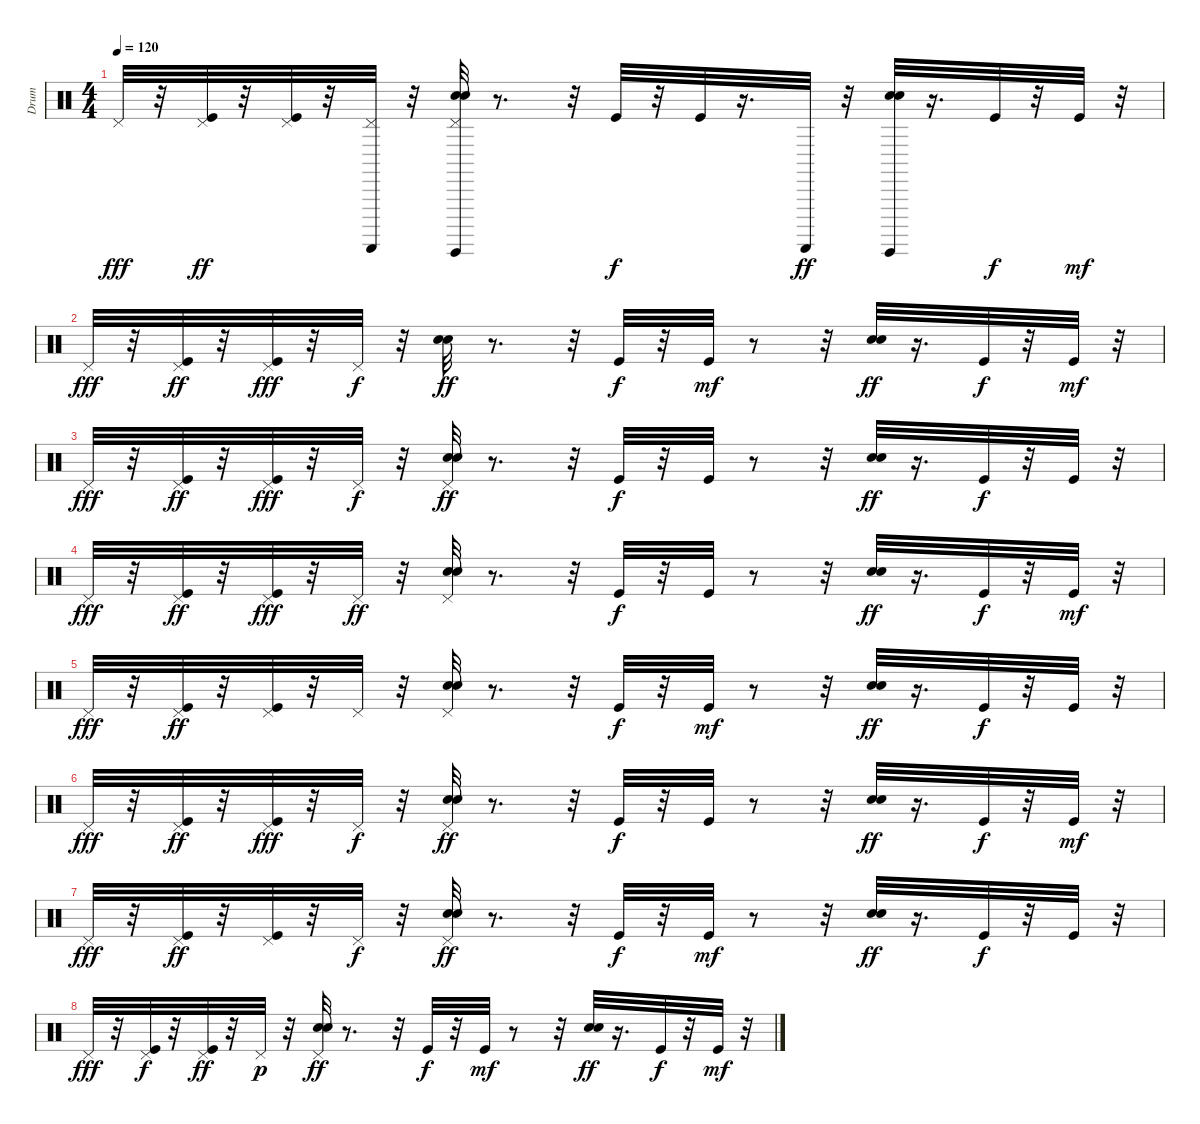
\track ("Drum" "Drum") {instrument percussion}
\staff {score}
\articulation defaults
\ts (4 4)
\tempo 120
\clef neutral
\ks c "Pedal Hi-Hat (hit)".32{dy fff}
r.32 ("Kick (hit)" "Pedal Hi-Hat (hit)").32{dy ff} r.32 ("Kick (hit)" "Pedal Hi-Hat (hit)").32 r.32 ("Guiro (scrap-return)" "Pedal Hi-Hat (hit)").32 r.32 ("Guiro (hit)" "Snare (hit) 2" "Electric Snare (hit)" "Pedal Hi-Hat (hit)").32 r.8{d} r.32 "Kick (hit)".32{dy f} r.32 "Kick (hit)".32 r.16{d} "Guiro (scrap-return)".32{dy ff} r.32 ("Guiro (hit)" "Snare (hit) 2" "Electric Snare (hit)").32 r.16{d} "Kick (hit)".32{dy f} r.32 "Kick (hit)".32{dy mf} r.32 |
"Pedal Hi-Hat (hit)".32{dy fff} r.32 ("Kick (hit)" "Pedal Hi-Hat (hit)").32{dy ff} r.32 ("Kick (hit)" "Pedal Hi-Hat (hit)").32{dy fff} r.32 "Pedal Hi-Hat (hit)".32{dy f} r.32 ("Snare (hit) 2" "Electric Snare (hit)").32{dy ff} r.8{d} r.32 "Kick (hit)".32{dy f} r.32 "Kick (hit)".32{dy mf} r.8 r.32 ("Snare (hit) 2" "Electric Snare (hit)").32{dy ff} r.16{d} "Kick (hit)".32{dy f} r.32 "Kick (hit)".32{dy mf} r.32 |
"Pedal Hi-Hat (hit)".32{dy fff} r.32 ("Kick (hit)" "Pedal Hi-Hat (hit)").32{dy ff} r.32 ("Kick (hit)" "Pedal Hi-Hat (hit)").32{dy fff} r.32 "Pedal Hi-Hat (hit)".32{dy f} r.32 ("Snare (hit) 2" "Electric Snare (hit)" "Pedal Hi-Hat (hit)").32{dy ff} r.8{d} r.32 "Kick (hit)".32{dy f} r.32 "Kick (hit)".32 r.8 r.32 ("Electric Snare (hit)" "Snare (hit) 2").32{dy ff} r.16{d} "Kick (hit)".32{dy f} r.32 "Kick (hit)".32 r.32 |
"Pedal Hi-Hat (hit)".32{dy fff} r.32 ("Kick (hit)" "Pedal Hi-Hat (hit)").32{dy ff} r.32 ("Kick (hit)" "Pedal Hi-Hat (hit)").32{dy fff} r.32 "Pedal Hi-Hat (hit)".32{dy ff} r.32 ("Snare (hit) 2" "Electric Snare (hit)" "Pedal Hi-Hat (hit)").32 r.8{d} r.32 "Kick (hit)".32{dy f} r.32 "Kick (hit)".32 r.8 r.32 ("Snare (hit) 2" "Electric Snare (hit)").32{dy ff} r.16{d} "Kick (hit)".32{dy f} r.32 "Kick (hit)".32{dy mf} r.32 |
"Pedal Hi-Hat (hit)".32{dy fff} r.32 ("Kick (hit)" "Pedal Hi-Hat (hit)").32{dy ff} r.32 ("Kick (hit)" "Pedal Hi-Hat (hit)").32 r.32 "Pedal Hi-Hat (hit)".32 r.32 ("Snare (hit) 2" "Electric Snare (hit)" "Pedal Hi-Hat (hit)").32 r.8{d} r.32 "Kick (hit)".32{dy f} r.32 "Kick (hit)".32{dy mf} r.8 r.32 ("Snare (hit) 2" "Electric Snare (hit)").32{dy ff} r.16{d} "Kick (hit)".32{dy f} r.32 "Kick (hit)".32 r.32 |
"Pedal Hi-Hat (hit)".32{dy fff} r.32 ("Kick (hit)" "Pedal Hi-Hat (hit)").32{dy ff} r.32 ("Kick (hit)" "Pedal Hi-Hat (hit)").32{dy fff} r.32 "Pedal Hi-Hat (hit)".32{dy f} r.32 ("Snare (hit) 2" "Electric Snare (hit)" "Pedal Hi-Hat (hit)").32{dy ff} r.8{d} r.32 "Kick (hit)".32{dy f} r.32 "Kick (hit)".32 r.8 r.32 ("Electric Snare (hit)" "Snare (hit) 2").32{dy ff} r.16{d} "Kick (hit)".32{dy f} r.32 "Kick (hit)".32{dy mf} r.32 |
"Pedal Hi-Hat (hit)".32{dy fff} r.32 ("Kick (hit)" "Pedal Hi-Hat (hit)").32{dy ff} r.32 ("Kick (hit)" "Pedal Hi-Hat (hit)").32 r.32 "Pedal Hi-Hat (hit)".32{dy f} r.32 ("Snare (hit) 2" "Electric Snare (hit)" "Pedal Hi-Hat (hit)").32{dy ff} r.8{d} r.32 "Kick (hit)".32{dy f} r.32 "Kick (hit)".32{dy mf} r.8 r.32 ("Snare (hit) 2" "Electric Snare (hit)").32{dy ff} r.16{d} "Kick (hit)".32{dy f} r.32 "Kick (hit)".32 r.32 |
"Pedal Hi-Hat (hit)".32{dy fff} r.32 ("Kick (hit)" "Pedal Hi-Hat (hit)").32{dy f} r.32 ("Kick (hit)" "Pedal Hi-Hat (hit)").32{dy ff} r.32 "Pedal Hi-Hat (hit)".32{dy p} r.32 ("Snare (hit) 2" "Electric Snare (hit)" "Pedal Hi-Hat (hit)").32{dy ff} r.8{d} r.32 "Kick (hit)".32{dy f} r.32 "Kick (hit)".32{dy mf} r.8 r.32 ("Snare (hit) 2" "Electric Snare (hit)").32{dy ff} r.16{d} "Kick (hit)".32{dy f} r.32 "Kick (hit)".32{dy mf} r.32
